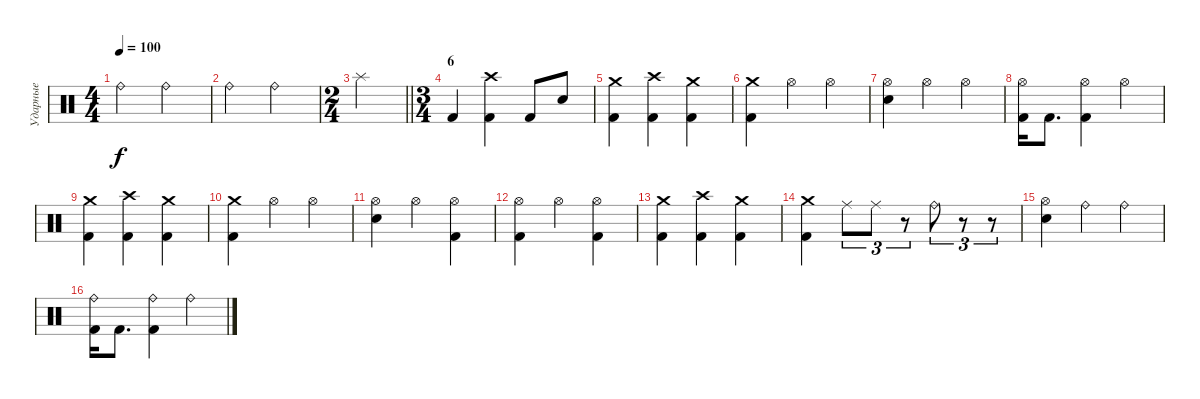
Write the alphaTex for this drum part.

\track ("Ударные" "Ударные") {instrument percussion}
\staff {score}
\articulation defaults
\ts (4 4)
\tempo 100
\clef neutral
\ks c "Ride (bell)".2{dy f} "Ride (bell)".2
|
"Ride (bell)".2 "Ride (bell)".2 |
\ts (2 4)
\barLineRight lightlight "Splash (hit)".2
|
\ts (3 4)
\section ("" "6")
"Kick (hit) 2".4 ("Crash high (hit)" "Kick (hit) 2").4 "Kick (hit) 2".8 "Electric Snare (hit)".8 |
("Crash medium (hit)" "Kick (hit) 2").4 ("Crash high (hit)" "Kick (hit) 2").4 ("Crash medium (hit)" "Kick (hit) 2").4 |
("Crash medium (hit)" "Kick (hit) 2").4 "Hi-Hat (open)".4 "Hi-Hat (open)".4 |
("Hi-Hat (open)" "Electric Snare (hit)").4 "Hi-Hat (open)".4 "Hi-Hat (open)".4 |
("Hi-Hat (open)" "Kick (hit) 2").16 "Kick (hit) 2".8{d} ("Hi-Hat (open)" "Kick (hit) 2").4 "Hi-Hat (open)".4 |
("Crash medium (hit)" "Kick (hit) 2").4 ("Crash high (hit)" "Kick (hit) 2").4 ("Crash medium (hit)" "Kick (hit) 2").4 |
("Crash medium (hit)" "Kick (hit) 2").4 "Hi-Hat (open)".4 "Hi-Hat (open)".4 |
("Hi-Hat (open)" "Electric Snare (hit)").4 "Hi-Hat (open)".4 ("Hi-Hat (open)" "Kick (hit) 2").4 |
("Hi-Hat (open)" "Kick (hit) 2").4 "Hi-Hat (open)".4 ("Hi-Hat (open)" "Kick (hit) 2").4 |
("Crash medium (hit)" "Kick (hit) 2").4 ("Crash high (hit)" "Kick (hit) 2").4 ("Crash medium (hit)" "Kick (hit) 2").4 |
("Crash medium (hit)" "Kick (hit) 2").4 "Ride (middle)".8{tu (3 2)} "Ride (middle)".8{tu (3 2)} r.8{tu (3 2)} "Ride (bell)".8{tu (3 2)} r.8{tu (3 2)} r.8{tu (3 2)} |
("Hi-Hat (open)" "Electric Snare (hit)").4 "Ride (bell)".4 "Ride (bell)".4 |
("Ride (bell)" "Kick (hit) 2").16 "Kick (hit) 2".8{d} ("Ride (bell)" "Kick (hit) 2").4 "Ride (bell)".4
